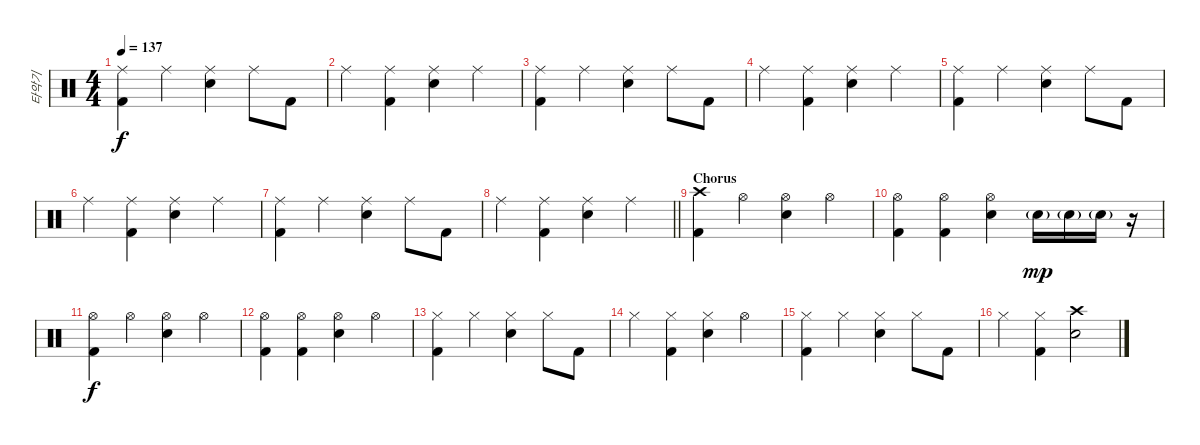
\track ("타악기" "타악기") {instrument percussion}
\staff {score}
\articulation defaults
\ts (4 4)
\tempo 137
\clef neutral
\ks c
("Ride (middle)" "Kick (hit) 2").4{dy f} "Ride (middle)".4 ("Ride (middle)" "Electric Snare (hit)").4 "Ride (middle)".8 "Kick (hit) 2".8 |
"Ride (middle)".4 ("Ride (middle)" "Kick (hit) 2").4 ("Ride (middle)" "Electric Snare (hit)").4 "Ride (middle)".4 |
("Ride (middle)" "Kick (hit) 2").4 "Ride (middle)".4 ("Ride (middle)" "Electric Snare (hit)").4 "Ride (middle)".8 "Kick (hit) 2".8 |
"Ride (middle)".4 ("Ride (middle)" "Kick (hit) 2").4 ("Ride (middle)" "Electric Snare (hit)").4 "Ride (middle)".4 |
("Ride (middle)" "Kick (hit) 2").4 "Ride (middle)".4 ("Ride (middle)" "Electric Snare (hit)").4 "Ride (middle)".8 "Kick (hit) 2".8 |
"Ride (middle)".4 ("Ride (middle)" "Kick (hit) 2").4 ("Ride (middle)" "Electric Snare (hit)").4 "Ride (middle)".4 |
("Ride (middle)" "Kick (hit) 2").4 "Ride (middle)".4 ("Ride (middle)" "Electric Snare (hit)").4 "Ride (middle)".8 "Kick (hit) 2".8 |
\barLineRight lightlight "Ride (middle)".4
("Ride (middle)" "Kick (hit) 2").4 ("Ride (middle)" "Electric Snare (hit)").4 "Ride (middle)".4 |
\section ("" "Chorus")
("Crash high (hit)" "Kick (hit) 2").4 "Hi-Hat (open)".4 ("Hi-Hat (open)" "Electric Snare (hit)").4 "Hi-Hat (open)".4 |
("Hi-Hat (open)" "Kick (hit) 2").4 ("Hi-Hat (open)" "Kick (hit) 2").4 ("Hi-Hat (open)" "Electric Snare (hit)").4 "Electric Snare (hit)"{g}.16{dy mp} "Electric Snare (hit)"{g}.16 "Electric Snare (hit)"{g}.16 r.16 |
("Hi-Hat (open)" "Kick (hit) 2").4{dy f} "Hi-Hat (open)".4 ("Hi-Hat (open)" "Electric Snare (hit)").4 "Hi-Hat (open)".4 |
("Hi-Hat (open)" "Kick (hit) 2").4 ("Hi-Hat (open)" "Kick (hit) 2").4 ("Hi-Hat (open)" "Electric Snare (hit)").4 "Hi-Hat (open)".4 |
("Hi-Hat (closed)" "Kick (hit) 2").4 "Hi-Hat (closed)".4 ("Hi-Hat (closed)" "Electric Snare (hit)").4 "Hi-Hat (closed)".8 "Kick (hit) 2".8 |
"Hi-Hat (closed)".4 ("Hi-Hat (closed)" "Kick (hit) 2").4 ("Hi-Hat (closed)" "Electric Snare (hit)").4 "Hi-Hat (open)".4 |
("Hi-Hat (closed)" "Kick (hit) 2").4 "Hi-Hat (closed)".4 ("Hi-Hat (closed)" "Electric Snare (hit)").4 "Hi-Hat (closed)".8 "Kick (hit) 2".8 |
"Hi-Hat (closed)".4 ("Hi-Hat (closed)" "Kick (hit) 2").4 ("Crash high (hit)" "Electric Snare (hit)").2
